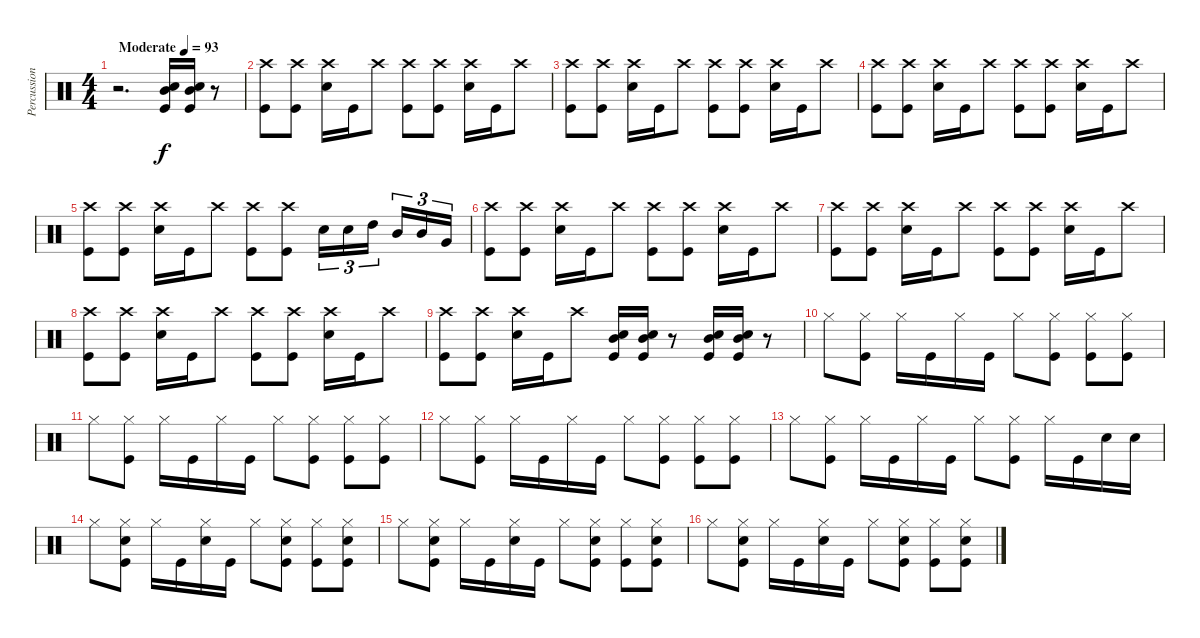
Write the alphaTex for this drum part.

\track ("Percussion" "Percussion") {instrument percussion}
\staff {score}
\articulation defaults
\ts (4 4)
\tempo (93 "Moderate")
\clef neutral
\ks c
r.2{d dy f} ("Snare (hit) 2" "Mid Tom (hit)" "Kick (hit)").16 ("Snare (hit) 2" "Mid Tom (hit)" "Kick (hit)").16 r.8 |
("Crash high (hit)" "Kick (hit)").8 ("Crash high (hit)" "Kick (hit)").8 ("Crash high (hit)" "Snare (hit) 2").16 "Kick (hit)".16 "Crash high (hit)".8 ("Crash high (hit)" "Kick (hit)").8 ("Crash high (hit)" "Kick (hit)").8 ("Crash high (hit)" "Snare (hit) 2").16 "Kick (hit)".16 "Crash high (hit)".8 |
("Crash high (hit)" "Kick (hit)").8 ("Crash high (hit)" "Kick (hit)").8 ("Crash high (hit)" "Snare (hit) 2").16 "Kick (hit)".16 "Crash high (hit)".8 ("Crash high (hit)" "Kick (hit)").8 ("Crash high (hit)" "Kick (hit)").8 ("Crash high (hit)" "Snare (hit) 2").16 "Kick (hit)".16 "Crash high (hit)".8 |
("Crash high (hit)" "Kick (hit)").8 ("Crash high (hit)" "Kick (hit)").8 ("Crash high (hit)" "Snare (hit) 2").16 "Kick (hit)".16 "Crash high (hit)".8 ("Crash high (hit)" "Kick (hit)").8 ("Crash high (hit)" "Kick (hit)").8 ("Crash high (hit)" "Snare (hit) 2").16 "Kick (hit)".16 "Crash high (hit)".8 |
("Crash high (hit)" "Kick (hit)").8 ("Crash high (hit)" "Kick (hit)").8 ("Crash high (hit)" "Snare (hit) 2").16 "Kick (hit)".16 "Crash high (hit)".8 ("Crash high (hit)" "Kick (hit)").8 ("Crash high (hit)" "Kick (hit)").8 "Snare (hit) 2".16{tu (3 2)} "Snare (hit) 2".16{tu (3 2)} "High Tom (hit)".16{tu (3 2) beam splitsecondary} "Mid Tom (hit)".16{tu (3 2)} "Mid Tom (hit)".16{tu (3 2)} "Very Low Tom (hit)".16{tu (3 2)} |
("Crash high (hit)" "Kick (hit)").8 ("Crash high (hit)" "Kick (hit)").8 ("Crash high (hit)" "Snare (hit) 2").16 "Kick (hit)".16 "Crash high (hit)".8 ("Crash high (hit)" "Kick (hit)").8 ("Crash high (hit)" "Kick (hit)").8 ("Crash high (hit)" "Snare (hit) 2").16 "Kick (hit)".16 "Crash high (hit)".8 |
("Crash high (hit)" "Kick (hit)").8 ("Crash high (hit)" "Kick (hit)").8 ("Crash high (hit)" "Snare (hit) 2").16 "Kick (hit)".16 "Crash high (hit)".8 ("Crash high (hit)" "Kick (hit)").8 ("Crash high (hit)" "Kick (hit)").8 ("Crash high (hit)" "Snare (hit) 2").16 "Kick (hit)".16 "Crash high (hit)".8 |
("Crash high (hit)" "Kick (hit)").8 ("Crash high (hit)" "Kick (hit)").8 ("Crash high (hit)" "Snare (hit) 2").16 "Kick (hit)".16 "Crash high (hit)".8 ("Crash high (hit)" "Kick (hit)").8 ("Crash high (hit)" "Kick (hit)").8 ("Crash high (hit)" "Snare (hit) 2").16 "Kick (hit)".16 "Crash high (hit)".8 |
("Crash high (hit)" "Kick (hit)").8 ("Crash high (hit)" "Kick (hit)").8 ("Crash high (hit)" "Snare (hit) 2").16 "Kick (hit)".16 "Crash high (hit)".8 ("Snare (hit) 2" "Mid Tom (hit)" "Kick (hit)").16 ("Snare (hit) 2" "Mid Tom (hit)" "Kick (hit)").16 r.8 ("Snare (hit) 2" "Mid Tom (hit)" "Kick (hit)").16 ("Snare (hit) 2" "Mid Tom (hit)" "Kick (hit)").16 r.8 |
"Hi-Hat (closed)".8 ("Hi-Hat (closed)" "Kick (hit)").8 "Hi-Hat (closed)".16 "Kick (hit)".16 "Hi-Hat (closed)".16 "Kick (hit)".16 "Hi-Hat (closed)".8 ("Hi-Hat (closed)" "Kick (hit)").8 ("Hi-Hat (closed)" "Kick (hit)").8 ("Hi-Hat (closed)" "Kick (hit)").8 |
"Hi-Hat (closed)".8 ("Hi-Hat (closed)" "Kick (hit)").8 "Hi-Hat (closed)".16 "Kick (hit)".16 "Hi-Hat (closed)".16 "Kick (hit)".16 "Hi-Hat (closed)".8 ("Hi-Hat (closed)" "Kick (hit)").8 ("Hi-Hat (closed)" "Kick (hit)").8 ("Hi-Hat (closed)" "Kick (hit)").8 |
"Hi-Hat (closed)".8 ("Hi-Hat (closed)" "Kick (hit)").8 "Hi-Hat (closed)".16 "Kick (hit)".16 "Hi-Hat (closed)".16 "Kick (hit)".16 "Hi-Hat (closed)".8 ("Hi-Hat (closed)" "Kick (hit)").8 ("Hi-Hat (closed)" "Kick (hit)").8 ("Hi-Hat (closed)" "Kick (hit)").8 |
"Hi-Hat (closed)".8 ("Hi-Hat (closed)" "Kick (hit)").8 "Hi-Hat (closed)".16 "Kick (hit)".16 "Hi-Hat (closed)".16 "Kick (hit)".16 "Hi-Hat (closed)".8 ("Hi-Hat (closed)" "Kick (hit)").8 "Hi-Hat (closed)".16 "Kick (hit)".16 "Snare (hit) 2".16 "Snare (hit) 2".16 |
"Hi-Hat (closed)".8 ("Hi-Hat (closed)" "Kick (hit)" "Snare (hit) 2").8 "Hi-Hat (closed)".16 "Kick (hit)".16 ("Hi-Hat (closed)" "Snare (hit) 2").16 "Kick (hit)".16 "Hi-Hat (closed)".8 ("Hi-Hat (closed)" "Kick (hit)" "Snare (hit) 2").8 ("Hi-Hat (closed)" "Kick (hit)").8 ("Hi-Hat (closed)" "Kick (hit)" "Snare (hit) 2").8 |
"Hi-Hat (closed)".8 ("Hi-Hat (closed)" "Kick (hit)" "Snare (hit) 2").8 "Hi-Hat (closed)".16 "Kick (hit)".16 ("Hi-Hat (closed)" "Snare (hit) 2").16 "Kick (hit)".16 "Hi-Hat (closed)".8 ("Hi-Hat (closed)" "Kick (hit)" "Snare (hit) 2").8 ("Hi-Hat (closed)" "Kick (hit)").8 ("Hi-Hat (closed)" "Kick (hit)" "Snare (hit) 2").8 |
"Hi-Hat (closed)".8 ("Hi-Hat (closed)" "Kick (hit)" "Snare (hit) 2").8 "Hi-Hat (closed)".16 "Kick (hit)".16 ("Hi-Hat (closed)" "Snare (hit) 2").16 "Kick (hit)".16 "Hi-Hat (closed)".8 ("Hi-Hat (closed)" "Kick (hit)" "Snare (hit) 2").8 ("Hi-Hat (closed)" "Kick (hit)").8 ("Hi-Hat (closed)" "Kick (hit)" "Snare (hit) 2").8
